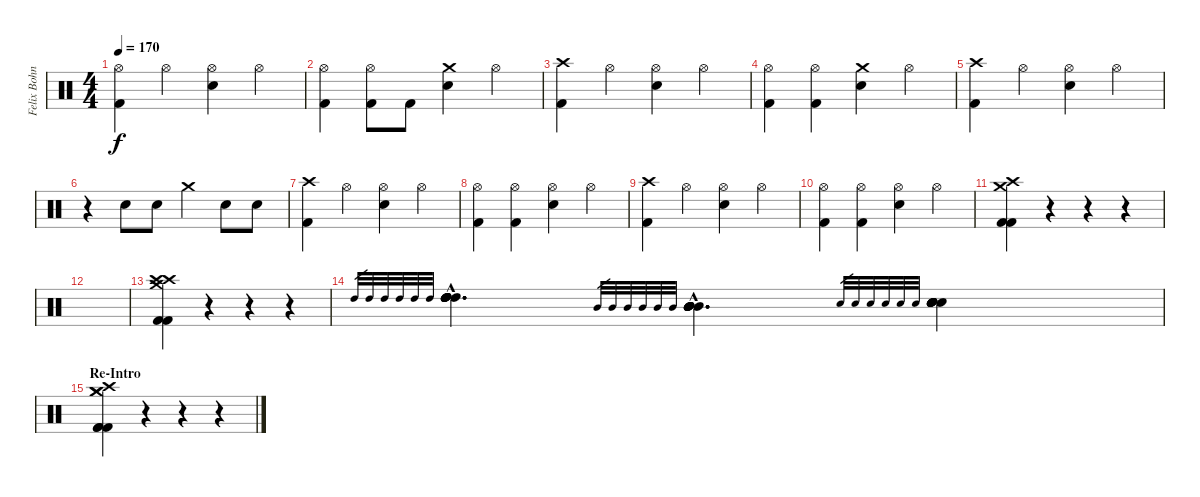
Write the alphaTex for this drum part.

\track ("Felix Bohnke" "Felix Bohn") {instrument percussion}
\staff {score}
\articulation defaults
\ts (4 4)
\tempo 170
\clef neutral
\ks c
("Hi-Hat (open)" "Kick (hit) 2").4{dy f} "Hi-Hat (open)".4 ("Hi-Hat (open)" "Snare (hit) 2").4 "Hi-Hat (open)".4 |
("Hi-Hat (open)" "Kick (hit) 2").4 ("Hi-Hat (open)" "Kick (hit) 2").8 "Kick (hit) 2".8 ("Crash medium (hit)" "Snare (hit) 2").4 "Hi-Hat (open)".4 |
("Crash high (hit)" "Kick (hit) 2").4 "Hi-Hat (open)".4 ("Hi-Hat (open)" "Snare (hit) 2").4 "Hi-Hat (open)".4 |
("Hi-Hat (open)" "Kick (hit) 2").4 ("Hi-Hat (open)" "Kick (hit) 2").4 ("Crash medium (hit)" "Snare (hit) 2").4 "Hi-Hat (open)".4 |
("Crash high (hit)" "Kick (hit) 2").4 "Hi-Hat (open)".4 ("Hi-Hat (open)" "Snare (hit) 2").4 "Hi-Hat (open)".4 |
r.4 "Snare (hit) 2".8 "Snare (hit) 2".8 "Crash medium (hit)".4 "Snare (hit) 2".8 "Snare (hit) 2".8 |
("Crash high (hit)" "Kick (hit) 2").4 "Hi-Hat (open)".4 ("Hi-Hat (open)" "Snare (hit) 2").4 "Hi-Hat (open)".4 |
("Hi-Hat (open)" "Kick (hit) 2").4 ("Hi-Hat (open)" "Kick (hit) 2").4 ("Hi-Hat (open)" "Snare (hit) 2").4 "Hi-Hat (open)".4 |
("Crash high (hit)" "Kick (hit) 2").4 "Hi-Hat (open)".4 ("Hi-Hat (open)" "Snare (hit) 2").4 "Hi-Hat (open)".4 |
("Hi-Hat (open)" "Kick (hit) 2").4 ("Hi-Hat (open)" "Kick (hit) 2").4 ("Hi-Hat (open)" "Snare (hit) 2").4 "Hi-Hat (open)".4 |
("Crash high (hit)" "Crash medium (hit)" "Kick (hit) 2" "Kick (hit) 2").4 r.4 r.4 r.4 |
|
("Crash high (hit)" "Crash high (hit)" "Crash medium (hit)" "Kick (hit) 2" "Kick (hit) 2").4 r.4 r.4 r.4 |
"High Tom (hit)".32{gr} "High Tom (hit)".32{gr} "High Tom (hit)".32{gr} "High Tom (hit)".32{gr} "High Tom (hit)".32{gr} "High Tom (hit)".32{gr} ("High Tom (hit)"{hac} "High Tom (hit)"{hac} "High Tom (hit)"{hac} "High Tom (hit)"{hac} "High Tom (hit)"{hac} "High Tom (hit)"{hac}).4{d} "Mid Tom (hit)".32{gr} "Mid Tom (hit)".32{gr} "Mid Tom (hit)".32{gr} "Mid Tom (hit)".32{gr} "Mid Tom (hit)".32{gr} "Mid Tom (hit)".32{gr} ("Mid Tom (hit)"{hac} "Mid Tom (hit)"{hac} "Mid Tom (hit)"{hac} "Mid Tom (hit)"{hac} "Mid Tom (hit)"{hac} "Mid Tom (hit)"{hac}).4{d} "Electric Snare (hit)".32{gr} "Electric Snare (hit)".32{gr} "Electric Snare (hit)".32{gr} "Electric Snare (hit)".32{gr} "Electric Snare (hit)".32{gr} "Electric Snare (hit)".32{gr} ("Electric Snare (hit)" "Electric Snare (hit)" "Electric Snare (hit)" "Electric Snare (hit)" "Electric Snare (hit)" "Electric Snare (hit)").4 |
\section ("" "Re-Intro")
("Crash high (hit)" "Crash medium (hit)" "Crash medium (hit)" "Kick (hit) 2" "Kick (hit) 2" "Kick (hit) 2").4 r.4 r.4 r.4
